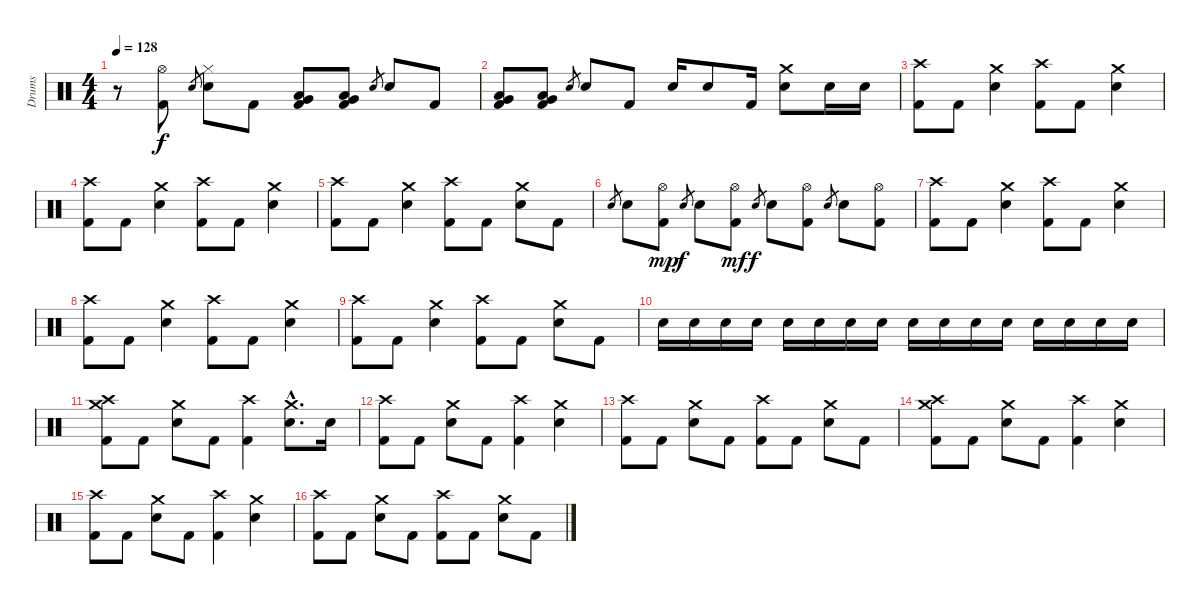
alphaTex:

\track ("Drums" "Drums") {instrument percussion}
\staff {score}
\articulation defaults
\ts (4 4)
\tempo 128
\clef neutral
\ks c
r.8{dy f} ("Hi-Hat (open)" "Kick (hit) 2").8 "Electric Snare (hit)".8{gr} ("Hi-Hat (closed)" "Electric Snare (hit)").8 "Kick (hit) 2".8 ("Low Tom (hit)" "Very Low Tom (hit)" "Kick (hit) 2").8 ("Low Tom (hit)" "Very Low Tom (hit)" "Kick (hit) 2").8 "Electric Snare (hit)".8{gr} "Electric Snare (hit)".8 "Kick (hit) 2".8 |
("Low Tom (hit)" "Very Low Tom (hit)" "Kick (hit) 2").8 ("Low Tom (hit)" "Very Low Tom (hit)" "Kick (hit) 2").8 "Electric Snare (hit)".8{gr} "Electric Snare (hit)".8 "Kick (hit) 2".8 "Electric Snare (hit)".16 "Electric Snare (hit)".8 "Kick (hit) 2".16 ("Crash medium (hit)" "Electric Snare (hit)").8 "Electric Snare (hit)".16 "Electric Snare (hit)".16 |
("Crash high (hit)" "Kick (hit) 2").8 "Kick (hit) 2".8 ("Crash medium (hit)" "Electric Snare (hit)").4 ("Crash high (hit)" "Kick (hit) 2").8 "Kick (hit) 2".8 ("Crash medium (hit)" "Electric Snare (hit)").4 |
("Crash high (hit)" "Kick (hit) 2").8 "Kick (hit) 2".8 ("Crash medium (hit)" "Electric Snare (hit)").4 ("Crash high (hit)" "Kick (hit) 2").8 "Kick (hit) 2".8 ("Crash medium (hit)" "Electric Snare (hit)").4 |
("Crash high (hit)" "Kick (hit) 2").8 "Kick (hit) 2".8 ("Crash medium (hit)" "Electric Snare (hit)").4 ("Crash high (hit)" "Kick (hit) 2").8 "Kick (hit) 2".8 ("Crash medium (hit)" "Electric Snare (hit)").8 "Kick (hit) 2".8 |
"Electric Snare (hit)".8{gr} "Electric Snare (hit)".8 ("Hi-Hat (open)" "Kick (hit) 2").8{dy mp} "Electric Snare (hit)".8{gr dy f} "Electric Snare (hit)".8 ("Hi-Hat (open)" "Kick (hit) 2").8{dy mf} "Electric Snare (hit)".8{gr dy f} "Electric Snare (hit)".8 ("Hi-Hat (open)" "Kick (hit) 2").8 "Electric Snare (hit)".8{gr} "Electric Snare (hit)".8 ("Hi-Hat (open)" "Kick (hit) 2").8 |
("Crash high (hit)" "Kick (hit) 2").8 "Kick (hit) 2".8 ("Crash medium (hit)" "Electric Snare (hit)").4 ("Crash high (hit)" "Kick (hit) 2").8 "Kick (hit) 2".8 ("Crash medium (hit)" "Electric Snare (hit)").4 |
("Crash high (hit)" "Kick (hit) 2").8 "Kick (hit) 2".8 ("Crash medium (hit)" "Electric Snare (hit)").4 ("Crash high (hit)" "Kick (hit) 2").8 "Kick (hit) 2".8 ("Crash medium (hit)" "Electric Snare (hit)").4 |
("Crash high (hit)" "Kick (hit) 2").8 "Kick (hit) 2".8 ("Crash medium (hit)" "Electric Snare (hit)").4 ("Crash high (hit)" "Kick (hit) 2").8 "Kick (hit) 2".8 ("Crash medium (hit)" "Electric Snare (hit)").8 "Kick (hit) 2".8 |
"Electric Snare (hit)".16 "Electric Snare (hit)".16 "Electric Snare (hit)".16 "Electric Snare (hit)".16 "Electric Snare (hit)".16 "Electric Snare (hit)".16 "Electric Snare (hit)".16 "Electric Snare (hit)".16 "Electric Snare (hit)".16 "Electric Snare (hit)".16 "Electric Snare (hit)".16 "Electric Snare (hit)".16 "Electric Snare (hit)".16 "Electric Snare (hit)".16 "Electric Snare (hit)".16 "Electric Snare (hit)".16 |
("Crash high (hit)" "Crash medium (hit)" "Kick (hit) 2").8 "Kick (hit) 2".8 ("Crash medium (hit)" "Electric Snare (hit)").8 "Kick (hit) 2".8 ("Crash high (hit)" "Kick (hit) 2").4 ("Crash medium (hit)"{hac} "Electric Snare (hit)"{hac}).8{d} "Electric Snare (hit)".16 |
("Crash high (hit)" "Kick (hit) 2").8 "Kick (hit) 2".8 ("Crash medium (hit)" "Electric Snare (hit)").8 "Kick (hit) 2".8 ("Crash high (hit)" "Kick (hit) 2").4 ("Crash medium (hit)" "Electric Snare (hit)").4 |
("Crash high (hit)" "Kick (hit) 2").8 "Kick (hit) 2".8 ("Crash medium (hit)" "Electric Snare (hit)").8 "Kick (hit) 2".8 ("Crash high (hit)" "Kick (hit) 2").8 "Kick (hit) 2".8 ("Crash medium (hit)" "Electric Snare (hit)").8 "Kick (hit) 2".8 |
("Crash high (hit)" "Crash medium (hit)" "Kick (hit) 2").8 "Kick (hit) 2".8 ("Crash medium (hit)" "Electric Snare (hit)").8 "Kick (hit) 2".8 ("Crash high (hit)" "Kick (hit) 2").4 ("Crash medium (hit)" "Electric Snare (hit)").4 |
("Crash high (hit)" "Kick (hit) 2").8 "Kick (hit) 2".8 ("Crash medium (hit)" "Electric Snare (hit)").8 "Kick (hit) 2".8 ("Crash high (hit)" "Kick (hit) 2").4 ("Crash medium (hit)" "Electric Snare (hit)").4 |
("Crash high (hit)" "Kick (hit) 2").8 "Kick (hit) 2".8 ("Crash medium (hit)" "Electric Snare (hit)").8 "Kick (hit) 2".8 ("Crash high (hit)" "Kick (hit) 2").8 "Kick (hit) 2".8 ("Crash medium (hit)" "Electric Snare (hit)").8 "Kick (hit) 2".8
